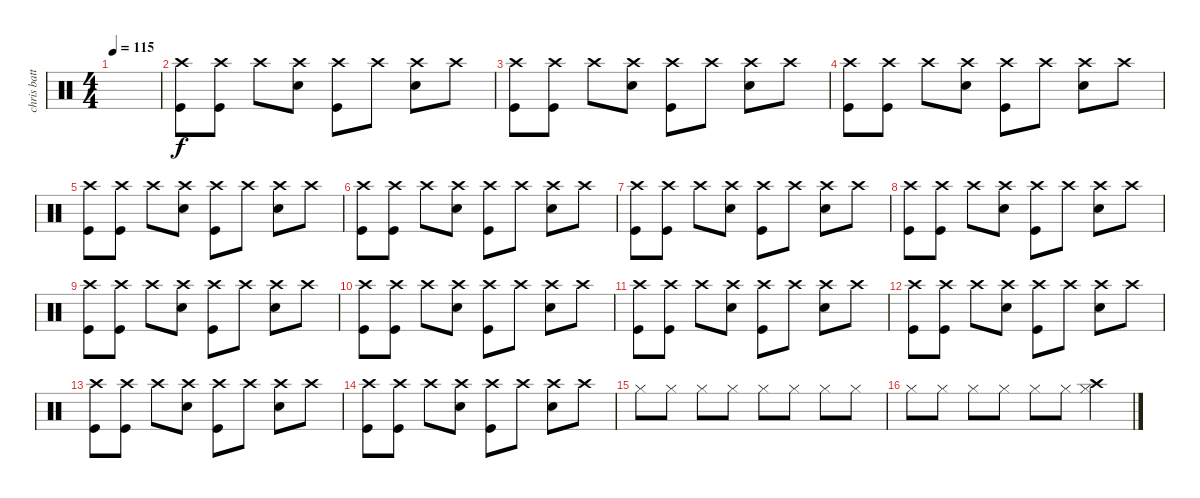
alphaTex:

\track ("chris batterie" "chris batt") {instrument percussion}
\staff {score}
\articulation defaults
\ts (4 4)
\tempo 115
\clef neutral
\ks c
|
("Crash high (hit)" "Kick (hit)").8 ("Crash high (hit)" "Kick (hit)").8 "Crash high (hit)".8 ("Crash high (hit)" "Snare (hit) 2").8 ("Crash high (hit)" "Kick (hit)").8 "Crash high (hit)".8 ("Crash high (hit)" "Snare (hit) 2").8 "Crash high (hit)".8 |
("Crash high (hit)" "Kick (hit)").8 ("Crash high (hit)" "Kick (hit)").8 "Crash high (hit)".8 ("Crash high (hit)" "Snare (hit) 2").8 ("Crash high (hit)" "Kick (hit)").8 "Crash high (hit)".8 ("Crash high (hit)" "Snare (hit) 2").8 "Crash high (hit)".8 |
("Crash high (hit)" "Kick (hit)").8 ("Crash high (hit)" "Kick (hit)").8 "Crash high (hit)".8 ("Crash high (hit)" "Snare (hit) 2").8 ("Crash high (hit)" "Kick (hit)").8 "Crash high (hit)".8 ("Crash high (hit)" "Snare (hit) 2").8 "Crash high (hit)".8 |
("Crash high (hit)" "Kick (hit)").8 ("Crash high (hit)" "Kick (hit)").8 "Crash high (hit)".8 ("Crash high (hit)" "Snare (hit) 2").8 ("Crash high (hit)" "Kick (hit)").8 "Crash high (hit)".8 ("Crash high (hit)" "Snare (hit) 2").8 "Crash high (hit)".8 |
("Crash high (hit)" "Kick (hit)").8 ("Crash high (hit)" "Kick (hit)").8 "Crash high (hit)".8 ("Crash high (hit)" "Snare (hit) 2").8 ("Crash high (hit)" "Kick (hit)").8 "Crash high (hit)".8 ("Crash high (hit)" "Snare (hit) 2").8 "Crash high (hit)".8 |
("Crash high (hit)" "Kick (hit)").8 ("Crash high (hit)" "Kick (hit)").8 "Crash high (hit)".8 ("Crash high (hit)" "Snare (hit) 2").8 ("Crash high (hit)" "Kick (hit)").8 "Crash high (hit)".8 ("Crash high (hit)" "Snare (hit) 2").8 "Crash high (hit)".8 |
("Crash high (hit)" "Kick (hit)").8 ("Crash high (hit)" "Kick (hit)").8 "Crash high (hit)".8 ("Crash high (hit)" "Snare (hit) 2").8 ("Crash high (hit)" "Kick (hit)").8 "Crash high (hit)".8 ("Crash high (hit)" "Snare (hit) 2").8 "Crash high (hit)".8 |
("Crash high (hit)" "Kick (hit)").8 ("Crash high (hit)" "Kick (hit)").8 "Crash high (hit)".8 ("Crash high (hit)" "Snare (hit) 2").8 ("Crash high (hit)" "Kick (hit)").8 "Crash high (hit)".8 ("Crash high (hit)" "Snare (hit) 2").8 "Crash high (hit)".8 |
("Crash high (hit)" "Kick (hit)").8 ("Crash high (hit)" "Kick (hit)").8 "Crash high (hit)".8 ("Crash high (hit)" "Snare (hit) 2").8 ("Crash high (hit)" "Kick (hit)").8 "Crash high (hit)".8 ("Crash high (hit)" "Snare (hit) 2").8 "Crash high (hit)".8 |
("Crash high (hit)" "Kick (hit)").8 ("Crash high (hit)" "Kick (hit)").8 "Crash high (hit)".8 ("Crash high (hit)" "Snare (hit) 2").8 ("Crash high (hit)" "Kick (hit)").8 "Crash high (hit)".8 ("Crash high (hit)" "Snare (hit) 2").8 "Crash high (hit)".8 |
("Crash high (hit)" "Kick (hit)").8 ("Crash high (hit)" "Kick (hit)").8 "Crash high (hit)".8 ("Crash high (hit)" "Snare (hit) 2").8 ("Crash high (hit)" "Kick (hit)").8 "Crash high (hit)".8 ("Crash high (hit)" "Snare (hit) 2").8 "Crash high (hit)".8 |
("Crash high (hit)" "Kick (hit)").8 ("Crash high (hit)" "Kick (hit)").8 "Crash high (hit)".8 ("Crash high (hit)" "Snare (hit) 2").8 ("Crash high (hit)" "Kick (hit)").8 "Crash high (hit)".8 ("Crash high (hit)" "Snare (hit) 2").8 "Crash high (hit)".8 |
("Crash high (hit)" "Kick (hit)").8 ("Crash high (hit)" "Kick (hit)").8 "Crash high (hit)".8 ("Crash high (hit)" "Snare (hit) 2").8 ("Crash high (hit)" "Kick (hit)").8 "Crash high (hit)".8 ("Crash high (hit)" "Snare (hit) 2").8 "Crash high (hit)".8 |
"Hi-Hat (closed)".8 "Hi-Hat (closed)".8 "Hi-Hat (closed)".8 "Hi-Hat (closed)".8 "Hi-Hat (closed)".8 "Hi-Hat (closed)".8 "Hi-Hat (closed)".8 "Hi-Hat (closed)".8 |
"Hi-Hat (closed)".8 "Hi-Hat (closed)".8 "Hi-Hat (closed)".8 "Hi-Hat (closed)".8 "Hi-Hat (closed)".8 "Hi-Hat (closed)".8 ("Crash high (hit)" "Hi-Hat (closed)").4
